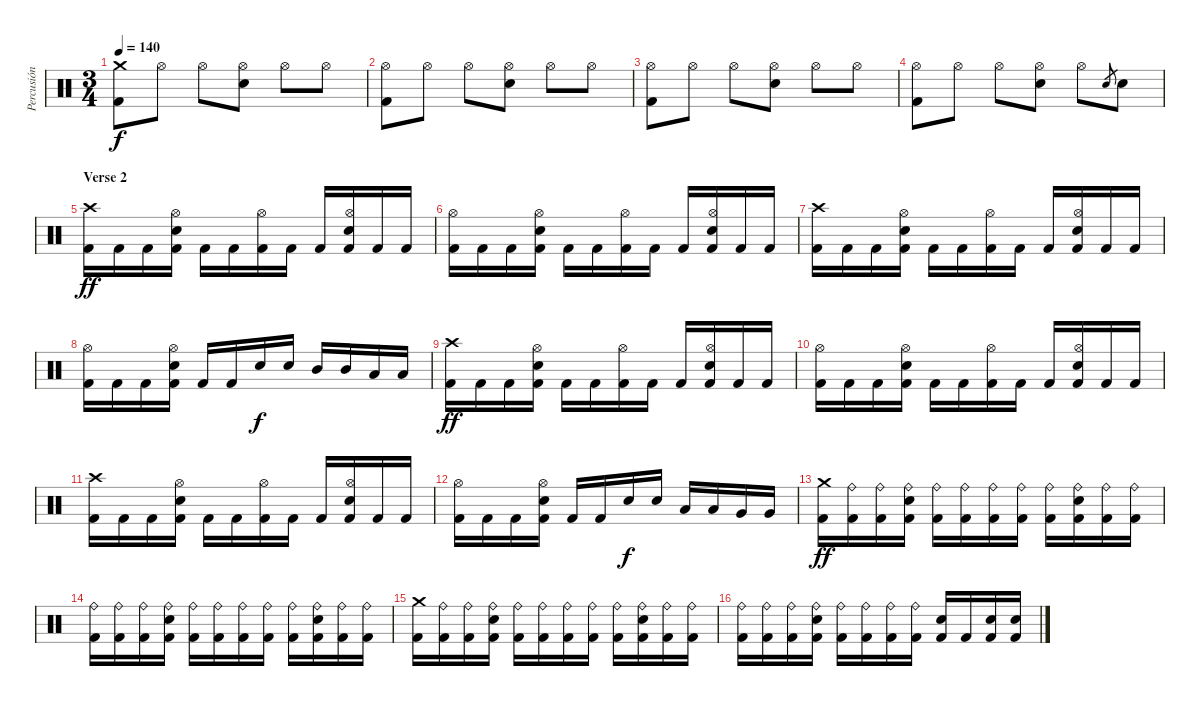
\track ("Percusión" "Percusión") {instrument percussion}
\staff {score}
\articulation defaults
\ts (3 4)
\tempo 140
\clef neutral
\ks c
("Crash medium (hit)" "Kick (hit) 2").8{dy f} "Hi-Hat (open)".8 "Hi-Hat (open)".8 ("Hi-Hat (open)" "Electric Snare (hit)").8 "Hi-Hat (open)".8 "Hi-Hat (open)".8 |
("Hi-Hat (open)" "Kick (hit) 2").8 "Hi-Hat (open)".8 "Hi-Hat (open)".8 ("Hi-Hat (open)" "Electric Snare (hit)").8 "Hi-Hat (open)".8 "Hi-Hat (open)".8 |
("Hi-Hat (open)" "Kick (hit) 2").8 "Hi-Hat (open)".8 "Hi-Hat (open)".8 ("Hi-Hat (open)" "Electric Snare (hit)").8 "Hi-Hat (open)".8 "Hi-Hat (open)".8 |
("Hi-Hat (open)" "Kick (hit) 2").8 "Hi-Hat (open)".8 "Hi-Hat (open)".8 ("Hi-Hat (open)" "Electric Snare (hit)").8 "Hi-Hat (open)".8 "Electric Snare (hit)".8{gr} "Electric Snare (hit)".8 |
\section ("" "Verse 2")
("Crash high (hit)" "Kick (hit) 2").16{dy ff} "Kick (hit) 2".16 "Kick (hit) 2".16 ("Hi-Hat (open)" "Electric Snare (hit)" "Kick (hit) 2").16 "Kick (hit) 2".16 "Kick (hit) 2".16 ("Hi-Hat (open)" "Kick (hit) 2").16 "Kick (hit) 2".16 "Kick (hit) 2".16 ("Hi-Hat (open)" "Electric Snare (hit)" "Kick (hit) 2").16 "Kick (hit) 2".16 "Kick (hit) 2".16 |
("Hi-Hat (open)" "Kick (hit) 2").16 "Kick (hit) 2".16 "Kick (hit) 2".16 ("Hi-Hat (open)" "Electric Snare (hit)" "Kick (hit) 2").16 "Kick (hit) 2".16 "Kick (hit) 2".16 ("Hi-Hat (open)" "Kick (hit) 2").16 "Kick (hit) 2".16 "Kick (hit) 2".16 ("Hi-Hat (open)" "Electric Snare (hit)" "Kick (hit) 2").16 "Kick (hit) 2".16 "Kick (hit) 2".16 |
("Crash high (hit)" "Kick (hit) 2").16 "Kick (hit) 2".16 "Kick (hit) 2".16 ("Hi-Hat (open)" "Electric Snare (hit)" "Kick (hit) 2").16 "Kick (hit) 2".16 "Kick (hit) 2".16 ("Hi-Hat (open)" "Kick (hit) 2").16 "Kick (hit) 2".16 "Kick (hit) 2".16 ("Hi-Hat (open)" "Electric Snare (hit)" "Kick (hit) 2").16 "Kick (hit) 2".16 "Kick (hit) 2".16 |
("Hi-Hat (open)" "Kick (hit) 2").16 "Kick (hit) 2".16 "Kick (hit) 2".16 ("Hi-Hat (open)" "Electric Snare (hit)" "Kick (hit) 2").16 "Kick (hit) 2".16 "Kick (hit) 2".16 "Electric Snare (hit)".16{dy f} "Electric Snare (hit)".16 "Mid Tom (hit)".16 "Mid Tom (hit)".16 "Low Tom (hit)".16 "Low Tom (hit)".16 |
("Crash high (hit)" "Kick (hit) 2").16{dy ff} "Kick (hit) 2".16 "Kick (hit) 2".16 ("Hi-Hat (open)" "Electric Snare (hit)" "Kick (hit) 2").16 "Kick (hit) 2".16 "Kick (hit) 2".16 ("Hi-Hat (open)" "Kick (hit) 2").16 "Kick (hit) 2".16 "Kick (hit) 2".16 ("Hi-Hat (open)" "Electric Snare (hit)" "Kick (hit) 2").16 "Kick (hit) 2".16 "Kick (hit) 2".16 |
("Hi-Hat (open)" "Kick (hit) 2").16 "Kick (hit) 2".16 "Kick (hit) 2".16 ("Hi-Hat (open)" "Electric Snare (hit)" "Kick (hit) 2").16 "Kick (hit) 2".16 "Kick (hit) 2".16 ("Hi-Hat (open)" "Kick (hit) 2").16 "Kick (hit) 2".16 "Kick (hit) 2".16 ("Hi-Hat (open)" "Electric Snare (hit)" "Kick (hit) 2").16 "Kick (hit) 2".16 "Kick (hit) 2".16 |
("Crash high (hit)" "Kick (hit) 2").16 "Kick (hit) 2".16 "Kick (hit) 2".16 ("Hi-Hat (open)" "Electric Snare (hit)" "Kick (hit) 2").16 "Kick (hit) 2".16 "Kick (hit) 2".16 ("Hi-Hat (open)" "Kick (hit) 2").16 "Kick (hit) 2".16 "Kick (hit) 2".16 ("Hi-Hat (open)" "Electric Snare (hit)" "Kick (hit) 2").16 "Kick (hit) 2".16 "Kick (hit) 2".16 |
("Hi-Hat (open)" "Kick (hit) 2").16 "Kick (hit) 2".16 "Kick (hit) 2".16 ("Hi-Hat (open)" "Electric Snare (hit)" "Kick (hit) 2").16 "Kick (hit) 2".16 "Kick (hit) 2".16 "Electric Snare (hit)".16{dy f} "Electric Snare (hit)".16 "Low Tom (hit)".16 "Low Tom (hit)".16 "Very Low Tom (hit)".16 "Very Low Tom (hit)".16 |
("Crash medium (hit)" "Kick (hit) 2").16{dy ff} ("Ride (bell)" "Kick (hit) 2").16 ("Ride (bell)" "Kick (hit) 2").16 ("Ride (bell)" "Electric Snare (hit)" "Kick (hit) 2").16 ("Ride (bell)" "Kick (hit) 2").16 ("Ride (bell)" "Kick (hit) 2").16 ("Ride (bell)" "Kick (hit) 2").16 ("Ride (bell)" "Kick (hit) 2").16 ("Ride (bell)" "Kick (hit) 2").16 ("Ride (bell)" "Electric Snare (hit)" "Kick (hit) 2").16 ("Ride (bell)" "Kick (hit) 2").16 ("Ride (bell)" "Kick (hit) 2").16 |
("Ride (bell)" "Kick (hit) 2").16 ("Ride (bell)" "Kick (hit) 2").16 ("Ride (bell)" "Kick (hit) 2").16 ("Ride (bell)" "Electric Snare (hit)" "Kick (hit) 2").16 ("Ride (bell)" "Kick (hit) 2").16 ("Ride (bell)" "Kick (hit) 2").16 ("Ride (bell)" "Kick (hit) 2").16 ("Ride (bell)" "Kick (hit) 2").16 ("Ride (bell)" "Kick (hit) 2").16 ("Ride (bell)" "Electric Snare (hit)" "Kick (hit) 2").16 ("Ride (bell)" "Kick (hit) 2").16 ("Ride (bell)" "Kick (hit) 2").16 |
("Crash medium (hit)" "Kick (hit) 2").16 ("Ride (bell)" "Kick (hit) 2").16 ("Ride (bell)" "Kick (hit) 2").16 ("Ride (bell)" "Electric Snare (hit)" "Kick (hit) 2").16 ("Ride (bell)" "Kick (hit) 2").16 ("Ride (bell)" "Kick (hit) 2").16 ("Ride (bell)" "Kick (hit) 2").16 ("Ride (bell)" "Kick (hit) 2").16 ("Ride (bell)" "Kick (hit) 2").16 ("Ride (bell)" "Electric Snare (hit)" "Kick (hit) 2").16 ("Ride (bell)" "Kick (hit) 2").16 ("Ride (bell)" "Kick (hit) 2").16 |
("Ride (bell)" "Kick (hit) 2").16 ("Ride (bell)" "Kick (hit) 2").16 ("Ride (bell)" "Kick (hit) 2").16 ("Ride (bell)" "Electric Snare (hit)" "Kick (hit) 2").16 ("Ride (bell)" "Kick (hit) 2").16 ("Ride (bell)" "Kick (hit) 2").16 ("Ride (bell)" "Kick (hit) 2").16 ("Ride (bell)" "Kick (hit) 2").16 ("Electric Snare (hit)" "Kick (hit) 2").16 "Kick (hit) 2".16 ("Electric Snare (hit)" "Kick (hit) 2").16 ("Electric Snare (hit)" "Kick (hit) 2").16
